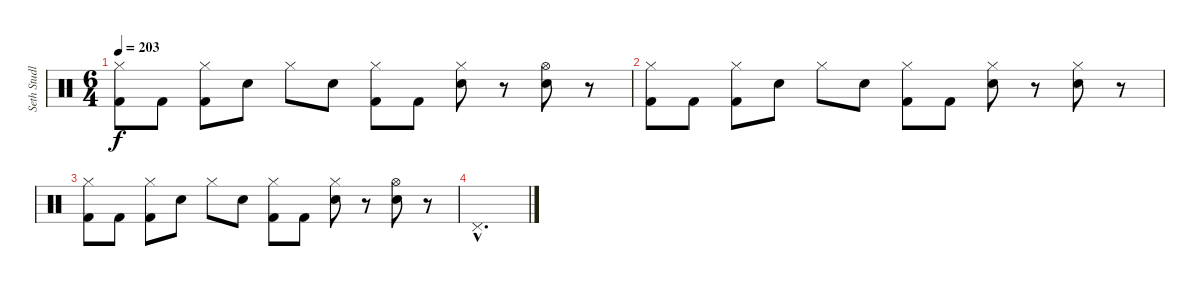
\track ("Seth Studley (Drums)" "Seth Studl") {instrument percussion}
\staff {score}
\articulation defaults
\ts (6 4)
\tempo 203
\clef neutral
\ks c
("Hi-Hat (closed)" "Kick (hit) 2").8{dy f} "Kick (hit) 2".8 ("Hi-Hat (closed)" "Kick (hit) 2").8 "Electric Snare (hit)".8 "Hi-Hat (closed)".8 "Electric Snare (hit)".8 ("Hi-Hat (closed)" "Kick (hit) 2").8 "Kick (hit) 2".8 ("Hi-Hat (closed)" "Electric Snare (hit)").8 r.8 ("Hi-Hat (open)" "Electric Snare (hit)").8 r.8 |
("Hi-Hat (closed)" "Kick (hit) 2").8 "Kick (hit) 2".8 ("Hi-Hat (closed)" "Kick (hit) 2").8 "Electric Snare (hit)".8 "Hi-Hat (closed)".8 "Electric Snare (hit)".8 ("Hi-Hat (closed)" "Kick (hit) 2").8 "Kick (hit) 2".8 ("Hi-Hat (closed)" "Electric Snare (hit)").8 r.8 ("Hi-Hat (closed)" "Electric Snare (hit)").8 r.8 |
("Hi-Hat (closed)" "Kick (hit) 2").8 "Kick (hit) 2".8 ("Hi-Hat (closed)" "Kick (hit) 2").8 "Electric Snare (hit)".8 "Hi-Hat (closed)".8 "Electric Snare (hit)".8 ("Hi-Hat (closed)" "Kick (hit) 2").8 "Kick (hit) 2".8 ("Hi-Hat (closed)" "Electric Snare (hit)").8 r.8 ("Hi-Hat (open)" "Electric Snare (hit)").8 r.8 |
"Pedal Hi-Hat (hit)"{hac}.1{d}
